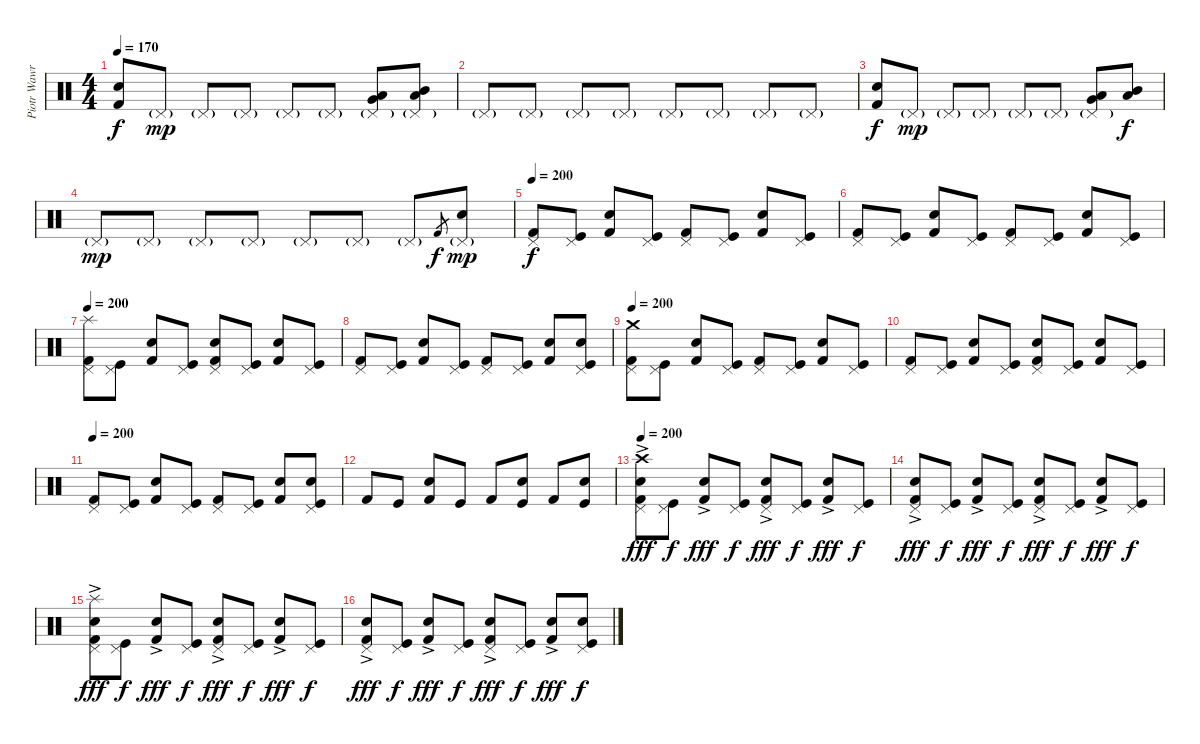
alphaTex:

\track ("Piotr Wawrzeniuk" "Piotr Wawr") {instrument percussion}
\staff {score}
\articulation defaults
\ts (4 4)
\tempo 170
\clef neutral
\ks c
("Snare (hit) 2" "Kick (hit) 2").8{dy f} "Pedal Hi-Hat (hit)"{g}.8{dy mp} "Pedal Hi-Hat (hit)"{g}.8 "Pedal Hi-Hat (hit)"{g}.8 "Pedal Hi-Hat (hit)"{g}.8 "Pedal Hi-Hat (hit)"{g}.8 ("Pedal Hi-Hat (hit)"{g} "Very Low Tom (hit)" "Low Floor Tom (hit)").8 ("Pedal Hi-Hat (hit)"{g} "Mid Tom (hit)" "Low Tom (hit)").8 |
"Pedal Hi-Hat (hit)"{g}.8 "Pedal Hi-Hat (hit)"{g}.8 "Pedal Hi-Hat (hit)"{g}.8 "Pedal Hi-Hat (hit)"{g}.8 "Pedal Hi-Hat (hit)"{g}.8 "Pedal Hi-Hat (hit)"{g}.8 "Pedal Hi-Hat (hit)"{g}.8 "Pedal Hi-Hat (hit)"{g}.8 |
("Snare (hit) 2" "Kick (hit) 2").8{dy f} "Pedal Hi-Hat (hit)"{g}.8{dy mp} "Pedal Hi-Hat (hit)"{g}.8 "Pedal Hi-Hat (hit)"{g}.8 "Pedal Hi-Hat (hit)"{g}.8 "Pedal Hi-Hat (hit)"{g}.8 ("Pedal Hi-Hat (hit)"{g} "Very Low Tom (hit)" "Low Floor Tom (hit)").8 ("Mid Tom (hit)" "Low Tom (hit)").8{dy f} |
"Pedal Hi-Hat (hit)"{g}.8{dy mp} "Pedal Hi-Hat (hit)"{g}.8 "Pedal Hi-Hat (hit)"{g}.8 "Pedal Hi-Hat (hit)"{g}.8 "Pedal Hi-Hat (hit)"{g}.8 "Pedal Hi-Hat (hit)"{g}.8 "Pedal Hi-Hat (hit)"{g}.8 "Kick (hit) 2".8{gr dy f} ("Pedal Hi-Hat (hit)"{g} "Snare (hit) 2").8{dy mp} |
\tempo 200
("Pedal Hi-Hat (hit)" "Kick (hit) 2").8{dy f} ("Pedal Hi-Hat (hit)" "Kick (hit)").8 ("Snare (hit) 2" "Kick (hit) 2").8 ("Pedal Hi-Hat (hit)" "Kick (hit)").8 ("Pedal Hi-Hat (hit)" "Kick (hit) 2").8 ("Pedal Hi-Hat (hit)" "Kick (hit)").8 ("Snare (hit) 2" "Kick (hit) 2").8 ("Pedal Hi-Hat (hit)" "Kick (hit)").8 |
("Pedal Hi-Hat (hit)" "Kick (hit) 2").8 ("Pedal Hi-Hat (hit)" "Kick (hit)").8 ("Snare (hit) 2" "Kick (hit) 2").8 ("Pedal Hi-Hat (hit)" "Kick (hit)").8 ("Pedal Hi-Hat (hit)" "Kick (hit) 2").8 ("Pedal Hi-Hat (hit)" "Kick (hit)").8 ("Snare (hit) 2" "Kick (hit) 2").8 ("Pedal Hi-Hat (hit)" "Kick (hit)").8 |
\tempo 200
("Splash (hit)" "Pedal Hi-Hat (hit)" "Kick (hit) 2").8 ("Pedal Hi-Hat (hit)" "Kick (hit)").8 ("Snare (hit) 2" "Kick (hit) 2").8 ("Pedal Hi-Hat (hit)" "Kick (hit)").8 ("Snare (hit) 2" "Pedal Hi-Hat (hit)" "Kick (hit) 2").8 ("Pedal Hi-Hat (hit)" "Kick (hit)").8 ("Snare (hit) 2" "Kick (hit) 2").8 ("Pedal Hi-Hat (hit)" "Kick (hit)").8 |
("Pedal Hi-Hat (hit)" "Kick (hit) 2").8 ("Pedal Hi-Hat (hit)" "Kick (hit)").8 ("Snare (hit) 2" "Kick (hit) 2").8 ("Pedal Hi-Hat (hit)" "Kick (hit)").8 ("Pedal Hi-Hat (hit)" "Kick (hit) 2").8 ("Pedal Hi-Hat (hit)" "Kick (hit)").8 ("Snare (hit) 2" "Kick (hit) 2").8 ("Snare (hit) 2" "Pedal Hi-Hat (hit)" "Kick (hit)").8 |
\tempo 200
("Crash medium (hit)" "Pedal Hi-Hat (hit)" "Kick (hit) 2").8 ("Pedal Hi-Hat (hit)" "Kick (hit)").8 ("Snare (hit) 2" "Kick (hit) 2").8 ("Pedal Hi-Hat (hit)" "Kick (hit)").8 ("Pedal Hi-Hat (hit)" "Kick (hit) 2").8 ("Pedal Hi-Hat (hit)" "Kick (hit)").8 ("Snare (hit) 2" "Kick (hit) 2").8 ("Pedal Hi-Hat (hit)" "Kick (hit)").8 |
("Pedal Hi-Hat (hit)" "Kick (hit) 2").8 ("Pedal Hi-Hat (hit)" "Kick (hit)").8 ("Snare (hit) 2" "Kick (hit) 2").8 ("Pedal Hi-Hat (hit)" "Kick (hit)").8 ("Snare (hit) 2" "Pedal Hi-Hat (hit)" "Kick (hit) 2").8 ("Pedal Hi-Hat (hit)" "Kick (hit)").8 ("Snare (hit) 2" "Kick (hit) 2").8 ("Pedal Hi-Hat (hit)" "Kick (hit)").8 |
\tempo 200
("Pedal Hi-Hat (hit)" "Kick (hit) 2").8 ("Pedal Hi-Hat (hit)" "Kick (hit)").8 ("Snare (hit) 2" "Kick (hit) 2").8 ("Pedal Hi-Hat (hit)" "Kick (hit)").8 ("Pedal Hi-Hat (hit)" "Kick (hit) 2").8 ("Pedal Hi-Hat (hit)" "Kick (hit)").8 ("Snare (hit) 2" "Kick (hit) 2").8 ("Snare (hit) 2" "Pedal Hi-Hat (hit)" "Kick (hit)").8 |
"Kick (hit) 2".8 "Kick (hit)".8 ("Snare (hit) 2" "Kick (hit) 2").8 "Kick (hit)".8 "Kick (hit) 2".8 ("Snare (hit) 2" "Kick (hit)").8 "Kick (hit) 2".8 ("Snare (hit) 2" "Kick (hit)").8 |
\tempo 200
("Crash high (hit)" "Snare (hit) 2"{ac} "Pedal Hi-Hat (hit)" "Kick (hit) 2").8{dy fff} ("Pedal Hi-Hat (hit)" "Kick (hit)").8{dy f} ("Snare (hit) 2"{ac} "Kick (hit) 2").8{dy fff} ("Pedal Hi-Hat (hit)" "Kick (hit)").8{dy f} ("Snare (hit) 2"{ac} "Pedal Hi-Hat (hit)" "Kick (hit) 2").8{dy fff} ("Pedal Hi-Hat (hit)" "Kick (hit)").8{dy f} ("Snare (hit) 2"{ac} "Kick (hit) 2").8{dy fff} ("Pedal Hi-Hat (hit)" "Kick (hit)").8{dy f} |
("Snare (hit) 2"{ac} "Pedal Hi-Hat (hit)" "Kick (hit) 2").8{dy fff} ("Pedal Hi-Hat (hit)" "Kick (hit)").8{dy f} ("Snare (hit) 2"{ac} "Kick (hit) 2").8{dy fff} ("Pedal Hi-Hat (hit)" "Kick (hit)").8{dy f} ("Snare (hit) 2"{ac} "Pedal Hi-Hat (hit)" "Kick (hit) 2").8{dy fff} ("Pedal Hi-Hat (hit)" "Kick (hit)").8{dy f} ("Snare (hit) 2"{ac} "Kick (hit) 2").8{dy fff} ("Pedal Hi-Hat (hit)" "Kick (hit)").8{dy f} |
("Snare (hit) 2"{ac} "Splash (hit)" "Pedal Hi-Hat (hit)" "Kick (hit) 2").8{dy fff} ("Pedal Hi-Hat (hit)" "Kick (hit)").8{dy f} ("Snare (hit) 2"{ac} "Kick (hit) 2").8{dy fff} ("Pedal Hi-Hat (hit)" "Kick (hit)").8{dy f} ("Snare (hit) 2"{ac} "Pedal Hi-Hat (hit)" "Kick (hit) 2").8{dy fff} ("Pedal Hi-Hat (hit)" "Kick (hit)").8{dy f} ("Snare (hit) 2"{ac} "Kick (hit) 2").8{dy fff} ("Pedal Hi-Hat (hit)" "Kick (hit)").8{dy f} |
("Snare (hit) 2"{ac} "Pedal Hi-Hat (hit)" "Kick (hit) 2").8{dy fff} ("Pedal Hi-Hat (hit)" "Kick (hit)").8{dy f} ("Snare (hit) 2"{ac} "Kick (hit) 2").8{dy fff} ("Pedal Hi-Hat (hit)" "Kick (hit)").8{dy f} ("Snare (hit) 2"{ac} "Pedal Hi-Hat (hit)" "Kick (hit) 2").8{dy fff} ("Pedal Hi-Hat (hit)" "Kick (hit)").8{dy f} ("Snare (hit) 2"{ac} "Kick (hit) 2").8{dy fff} ("Snare (hit) 2" "Pedal Hi-Hat (hit)" "Kick (hit)").8{dy f}
